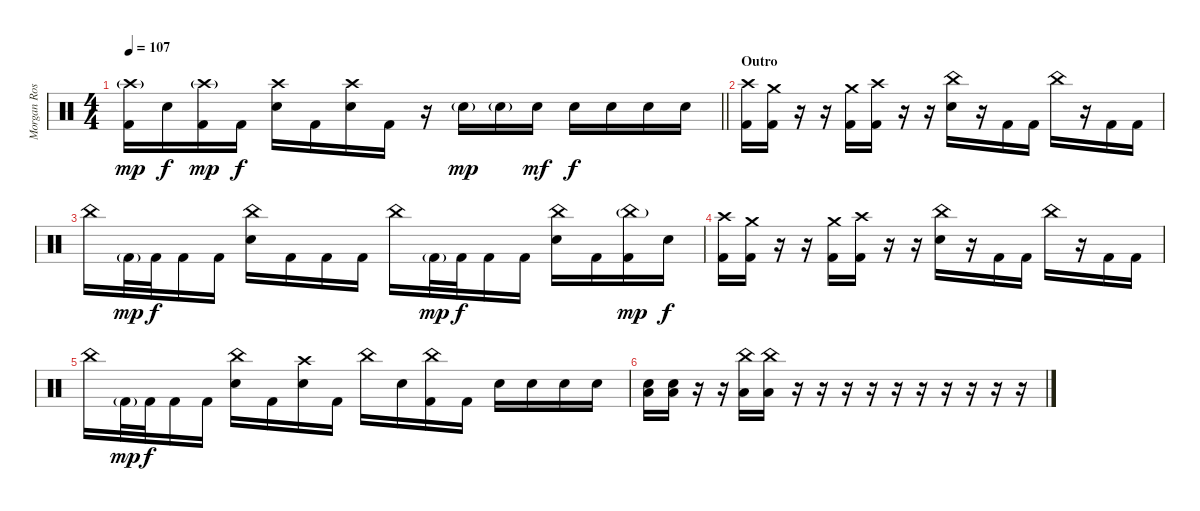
\track ("Morgan Rose" "Morgan Ros") {instrument percussion}
\staff {score}
\articulation defaults
\ts (4 4)
\tempo 107
\clef neutral
\barLineRight lightlight
\ks c
("Crash high (hit)"{g} "Kick (hit) 2").16{dy mp} "Snare (hit) 2".16{dy f} ("Crash high (hit)"{g} "Kick (hit) 2").16{dy mp} "Kick (hit) 2".16{dy f} ("Crash high (hit)" "Snare (hit) 2").16 "Kick (hit) 2".16 ("Crash high (hit)" "Snare (hit) 2").16 "Kick (hit) 2".16 r.16 "Snare (hit) 2"{g}.16{dy mp} "Snare (hit) 2"{g}.16 "Snare (hit) 2".16{dy mf} "Snare (hit) 2".16{dy f} "Snare (hit) 2".16 "Snare (hit) 2".16 "Snare (hit) 2".16 |
\section ("" "Outro")
("Crash high (hit)" "Kick (hit) 2").16 ("Crash medium (hit)" "Kick (hit) 2").16 r.16 r.16 ("Crash medium (hit)" "Kick (hit) 2").16 ("Crash high (hit)" "Kick (hit) 2").16 r.16 r.16 ("China (hit)" "Snare (hit) 2").16 r.16 "Kick (hit) 2".16 "Kick (hit) 2".16 "China (hit)".16 r.16 "Kick (hit) 2".16 "Kick (hit) 2".16 |
"China (hit)".16 "Kick (hit) 2"{g}.32{dy mp} "Kick (hit) 2".32{dy f} "Kick (hit) 2".16 "Kick (hit) 2".16 ("China (hit)" "Snare (hit) 2").16 "Kick (hit) 2".16 "Kick (hit) 2".16 "Kick (hit) 2".16 "China (hit)".16 "Kick (hit) 2"{g}.32{dy mp} "Kick (hit) 2".32{dy f} "Kick (hit) 2".16 "Kick (hit) 2".16 ("China (hit)" "Snare (hit) 2").16 "Kick (hit) 2".16 ("China (hit)"{g} "Kick (hit) 2").16{dy mp} "Snare (hit) 2".16{dy f} |
("Crash high (hit)" "Kick (hit) 2").16 ("Crash medium (hit)" "Kick (hit) 2").16 r.16 r.16 ("Crash medium (hit)" "Kick (hit) 2").16 ("Crash high (hit)" "Kick (hit) 2").16 r.16 r.16 ("China (hit)" "Snare (hit) 2").16 r.16 "Kick (hit) 2".16 "Kick (hit) 2".16 "China (hit)".16 r.16 "Kick (hit) 2".16 "Kick (hit) 2".16 |
"China (hit)".16 "Kick (hit) 2"{g}.32{dy mp} "Kick (hit) 2".32{dy f} "Kick (hit) 2".16 "Kick (hit) 2".16 ("China (hit)" "Snare (hit) 2").16 "Kick (hit) 2".16 ("Crash high (hit)" "Snare (hit) 2").16 "Kick (hit) 2".16 "China (hit)".16 "Snare (hit) 2".16 ("China (hit)" "Kick (hit) 2").16 "Kick (hit) 2".16 "Snare (hit) 2".16 "Snare (hit) 2".16 "Snare (hit) 2".16 "Snare (hit) 2".16 |
("Snare (hit) 2" "Low Tom (hit)").16 ("Snare (hit) 2" "Low Tom (hit)").16 r.16 r.16 ("China (hit)" "Low Tom (hit)").16 ("China (hit)" "Low Tom (hit)").16 r.16 r.16 r.16 r.16 r.16 r.16 r.16 r.16 r.16 r.16
